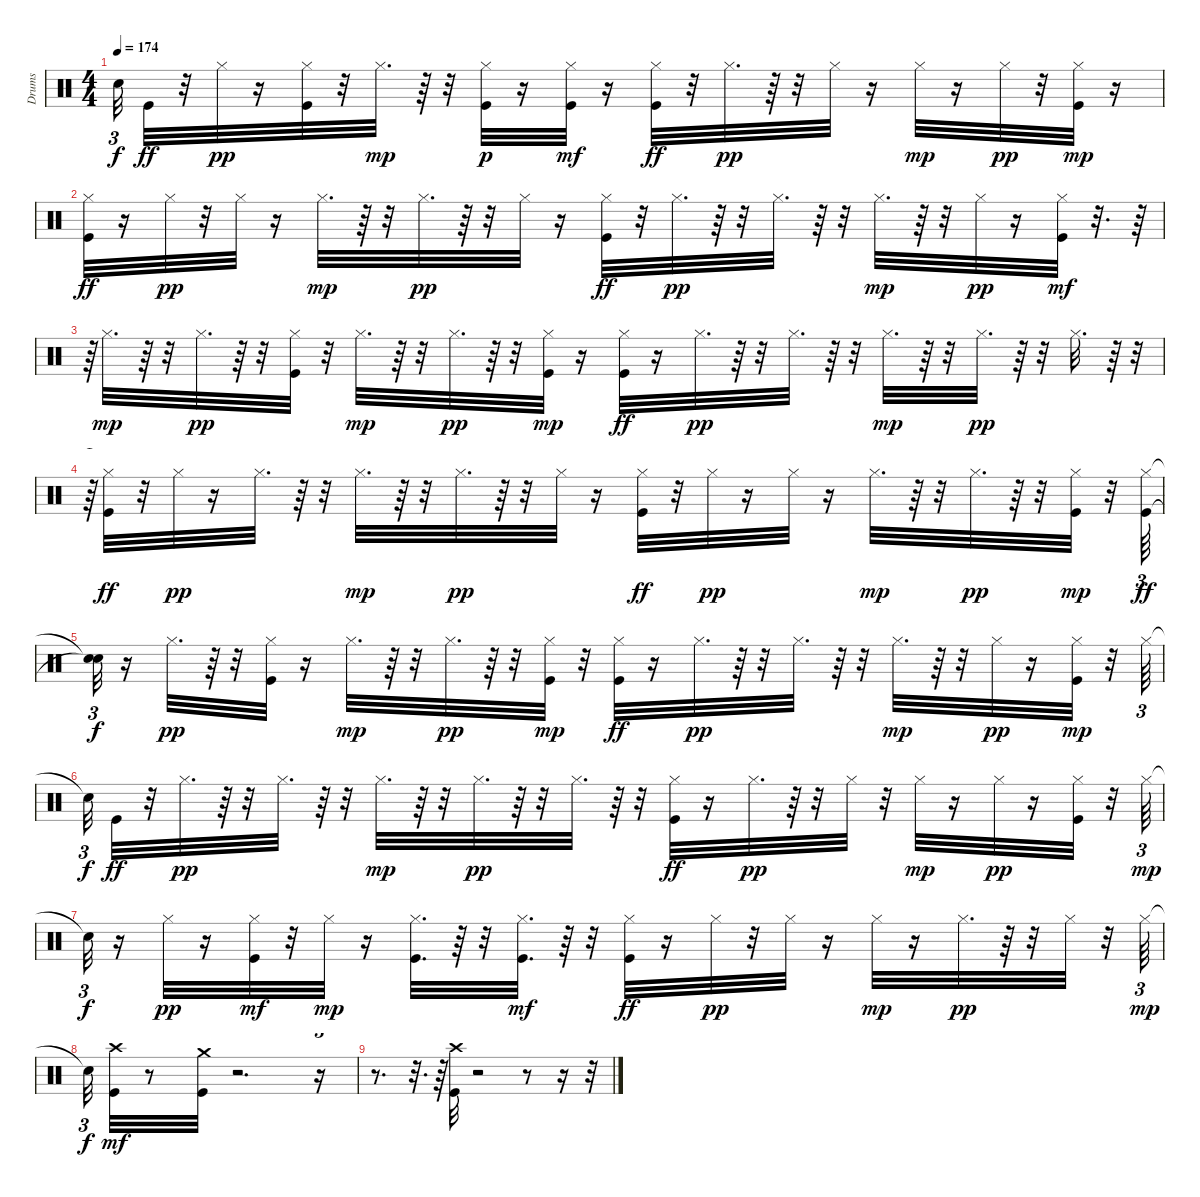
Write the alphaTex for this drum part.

\track ("Drums" "Drums") {instrument percussion}
\staff {score}
\articulation defaults
\ts (4 4)
\tempo 174
\clef neutral
\ks c "Snare (hit)"{t}.32{tu (3 2) dy f} "Kick (hit)".32{dy ff}
r.32 "Hi-Hat (closed)".32{dy pp} r.16 ("Hi-Hat (closed)" "Kick (hit)").32 r.32 "Hi-Hat (closed)".32{d dy mp} r.64 r.32 ("Hi-Hat (closed)" "Kick (hit)").32{dy p} r.16 ("Hi-Hat (closed)" "Kick (hit)").32{dy mf} r.16 ("Hi-Hat (closed)" "Kick (hit)").32{dy ff} r.32 "Hi-Hat (closed)".32{d dy pp} r.64 r.32 "Hi-Hat (closed)".32 r.16 "Hi-Hat (closed)".32{dy mp} r.16 "Hi-Hat (closed)".32{dy pp} r.32 ("Hi-Hat (closed)" "Kick (hit)").32{dy mp} r.16 |
("Hi-Hat (closed)" "Kick (hit)").32{dy ff} r.16 "Hi-Hat (closed)".32{dy pp} r.32 "Hi-Hat (closed)".32 r.16 "Hi-Hat (closed)".32{d dy mp} r.64 r.32 "Hi-Hat (closed)".32{d dy pp} r.64 r.32 "Hi-Hat (closed)".32 r.16 ("Hi-Hat (closed)" "Kick (hit)").32{dy ff} r.32 "Hi-Hat (closed)".32{d dy pp} r.64 r.32 "Hi-Hat (closed)".32{d} r.64 r.32 "Hi-Hat (closed)".32{d dy mp} r.64 r.32 "Hi-Hat (closed)".32{dy pp} r.16 ("Hi-Hat (closed)" "Kick (hit)").32{dy mf} r.32{d} r.64 |
r.64{tu (3 2)} "Hi-Hat (closed)".32{d dy mp} r.64 r.32 "Hi-Hat (closed)".32{d dy pp} r.64 r.32 ("Hi-Hat (closed)" "Kick (hit)").32 r.32 "Hi-Hat (closed)".32{d dy mp} r.64 r.32 "Hi-Hat (closed)".32{d dy pp} r.64 r.32 ("Hi-Hat (closed)" "Kick (hit)").32{dy mp} r.16 ("Hi-Hat (closed)" "Kick (hit)").32{dy ff} r.16 "Hi-Hat (closed)".32{d dy pp} r.64 r.32 "Hi-Hat (closed)".32{d} r.64 r.32 "Hi-Hat (closed)".32{d dy mp} r.64 r.32 "Hi-Hat (closed)".32{d dy pp} r.64 r.32 "Hi-Hat (closed)".32{d} r.64 r.32{tu (3 2)} |
r.64{tu (3 2)} ("Hi-Hat (closed)" "Kick (hit)").32{dy ff} r.32 "Hi-Hat (closed)".32{dy pp} r.16 "Hi-Hat (closed)".32{d} r.64 r.32 "Hi-Hat (closed)".32{d dy mp} r.64 r.32 "Hi-Hat (closed)".32{d dy pp} r.64 r.32 "Hi-Hat (closed)".32 r.16 ("Hi-Hat (closed)" "Kick (hit)").32{dy ff} r.32 "Hi-Hat (closed)".32{dy pp} r.16 "Hi-Hat (closed)".32 r.16 "Hi-Hat (closed)".32{d dy mp} r.64 r.32 "Hi-Hat (closed)".32{d dy pp} r.64 r.32 ("Hi-Hat (closed)" "Kick (hit)").32{dy mp} r.32 ("Hi-Hat (closed)" "Kick (hit)").64{tu (3 2) dy ff} |
("Snare (hit)"{t} "Snare (hit)"{t}).32{tu (3 2) dy f} r.16 "Hi-Hat (closed)".32{d dy pp} r.64 r.32 ("Hi-Hat (closed)" "Kick (hit)").32 r.16 "Hi-Hat (closed)".32{d dy mp} r.64 r.32 "Hi-Hat (closed)".32{d dy pp} r.64 r.32 ("Hi-Hat (closed)" "Kick (hit)").32{dy mp} r.32 ("Hi-Hat (closed)" "Kick (hit)").32{dy ff} r.16 "Hi-Hat (closed)".32{d dy pp} r.64 r.32 "Hi-Hat (closed)".32{d} r.64 r.32 "Hi-Hat (closed)".32{d dy mp} r.64 r.32 "Hi-Hat (closed)".32{dy pp} r.16 ("Hi-Hat (closed)" "Kick (hit)").32{dy mp} r.32 "Hi-Hat (closed)".64{tu (3 2)} |
"Snare (hit)"{t}.32{tu (3 2) dy f} "Kick (hit)".32{dy ff} r.32 "Hi-Hat (closed)".32{d dy pp} r.64 r.32 "Hi-Hat (closed)".32{d} r.64 r.32 "Hi-Hat (closed)".32{d dy mp} r.64 r.32 "Hi-Hat (closed)".32{d dy pp} r.64 r.32 "Hi-Hat (closed)".32{d} r.64 r.32 ("Hi-Hat (closed)" "Kick (hit)").32{dy ff} r.16 "Hi-Hat (closed)".32{d dy pp} r.64 r.32 "Hi-Hat (closed)".32 r.32 "Hi-Hat (closed)".32{dy mp} r.16 "Hi-Hat (closed)".32{dy pp} r.16 ("Hi-Hat (closed)" "Kick (hit)").32 r.32 "Hi-Hat (closed)".64{tu (3 2) dy mp} |
"Snare (hit)"{t}.32{tu (3 2) dy f} r.16 "Hi-Hat (closed)".32{dy pp} r.16 ("Hi-Hat (closed)" "Kick (hit)").32{dy mf} r.32 "Hi-Hat (closed)".32{dy mp} r.16 ("Hi-Hat (closed)" "Kick (hit)").32{d} r.64 r.32 ("Hi-Hat (closed)" "Kick (hit)").32{d dy mf} r.64 r.32 ("Hi-Hat (closed)" "Kick (hit)").32{dy ff} r.16 "Hi-Hat (closed)".32{dy pp} r.32 "Hi-Hat (closed)".32 r.16 "Hi-Hat (closed)".32{dy mp} r.16 "Hi-Hat (closed)".32{d dy pp} r.64 r.32 "Hi-Hat (closed)".32 r.32 "Hi-Hat (closed)".64{tu (3 2) dy mp} |
"Snare (hit)"{t}.32{tu (3 2) dy f} ("Kick (hit)" "Crash high (hit)").32{dy mf} r.8 ("Kick (hit)" "Crash medium (hit)").32 r.2{d} r.16{tu (3 2)} |
r.8{d} r.32{d} r.64 ("Kick (hit)" "Crash high (hit)").32 r.2 r.8 r.16 r.32
